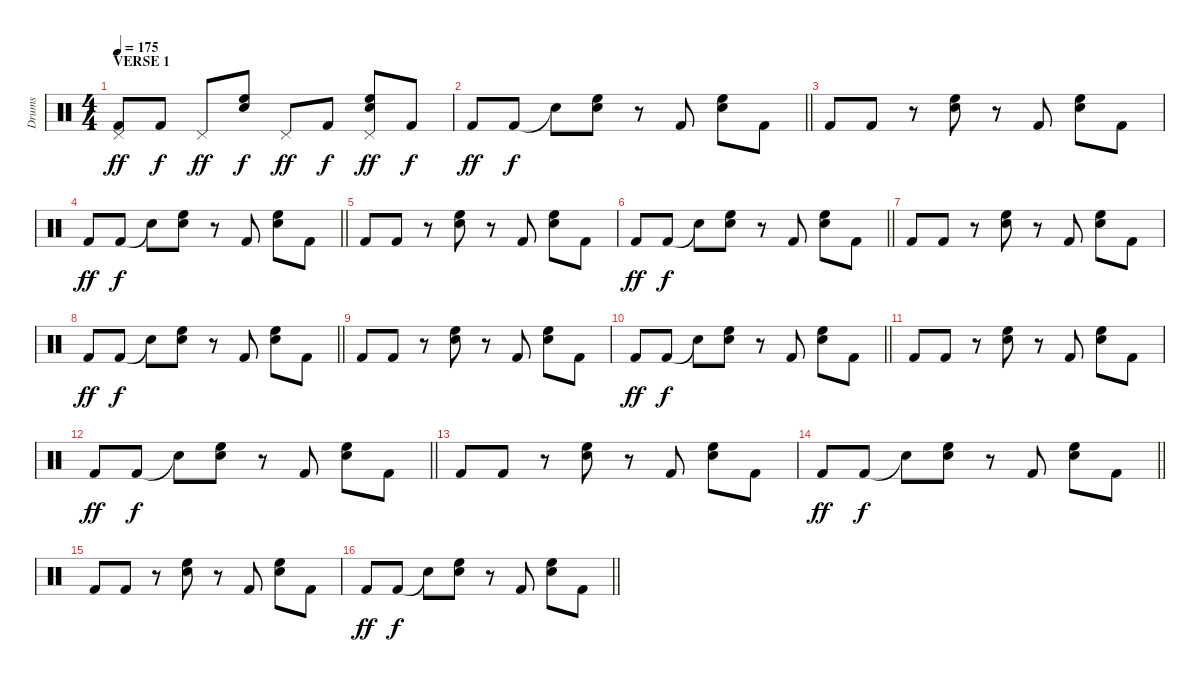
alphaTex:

\track ("Drums" "Drums") {instrument percussion}
\staff {score}
\articulation defaults
\ts (4 4)
\section ("" "VERSE 1")
\tempo 175
\clef neutral
\ks c
("Kick (hit) 2" "Pedal Hi-Hat (hit)").8{dy ff} "Kick (hit) 2".8{dy f} "Pedal Hi-Hat (hit)".8{dy ff} ("High Floor Tom (hit)" "Electric Snare (hit)").8{dy f} "Pedal Hi-Hat (hit)".8{dy ff} "Kick (hit) 2".8{dy f} ("High Floor Tom (hit)" "Electric Snare (hit)" "Pedal Hi-Hat (hit)").8{dy ff} "Kick (hit) 2".8{dy f} |
\barLineRight lightlight "Kick (hit) 2".8{dy ff} "Kick (hit) 2".8{dy f} "Snare (hit)"{t}.8
("High Floor Tom (hit)" "Electric Snare (hit)").8 r.8 "Kick (hit) 2".8 ("High Floor Tom (hit)" "Electric Snare (hit)").8 "Kick (hit) 2".8 |
"Kick (hit) 2".8 "Kick (hit) 2".8 r.8 ("High Floor Tom (hit)" "Electric Snare (hit)").8 r.8 "Kick (hit) 2".8 ("High Floor Tom (hit)" "Electric Snare (hit)").8 "Kick (hit) 2".8 |
\barLineRight lightlight "Kick (hit) 2".8{dy ff} "Kick (hit) 2".8{dy f} "Snare (hit)"{t}.8
("High Floor Tom (hit)" "Electric Snare (hit)").8 r.8 "Kick (hit) 2".8 ("High Floor Tom (hit)" "Electric Snare (hit)").8 "Kick (hit) 2".8 |
"Kick (hit) 2".8 "Kick (hit) 2".8 r.8 ("High Floor Tom (hit)" "Electric Snare (hit)").8 r.8 "Kick (hit) 2".8 ("High Floor Tom (hit)" "Electric Snare (hit)").8 "Kick (hit) 2".8 |
\barLineRight lightlight "Kick (hit) 2".8{dy ff} "Kick (hit) 2".8{dy f} "Snare (hit)"{t}.8
("High Floor Tom (hit)" "Electric Snare (hit)").8 r.8 "Kick (hit) 2".8 ("High Floor Tom (hit)" "Electric Snare (hit)").8 "Kick (hit) 2".8 |
"Kick (hit) 2".8 "Kick (hit) 2".8 r.8 ("High Floor Tom (hit)" "Electric Snare (hit)").8 r.8 "Kick (hit) 2".8 ("High Floor Tom (hit)" "Electric Snare (hit)").8 "Kick (hit) 2".8 |
\barLineRight lightlight "Kick (hit) 2".8{dy ff} "Kick (hit) 2".8{dy f} "Snare (hit)"{t}.8
("High Floor Tom (hit)" "Electric Snare (hit)").8 r.8 "Kick (hit) 2".8 ("High Floor Tom (hit)" "Electric Snare (hit)").8 "Kick (hit) 2".8 |
"Kick (hit) 2".8 "Kick (hit) 2".8 r.8 ("High Floor Tom (hit)" "Electric Snare (hit)").8 r.8 "Kick (hit) 2".8 ("High Floor Tom (hit)" "Electric Snare (hit)").8 "Kick (hit) 2".8 |
\barLineRight lightlight "Kick (hit) 2".8{dy ff} "Kick (hit) 2".8{dy f} "Snare (hit)"{t}.8
("High Floor Tom (hit)" "Electric Snare (hit)").8 r.8 "Kick (hit) 2".8 ("High Floor Tom (hit)" "Electric Snare (hit)").8 "Kick (hit) 2".8 |
"Kick (hit) 2".8 "Kick (hit) 2".8 r.8 ("High Floor Tom (hit)" "Electric Snare (hit)").8 r.8 "Kick (hit) 2".8 ("High Floor Tom (hit)" "Electric Snare (hit)").8 "Kick (hit) 2".8 |
\barLineRight lightlight "Kick (hit) 2".8{dy ff} "Kick (hit) 2".8{dy f} "Snare (hit)"{t}.8
("High Floor Tom (hit)" "Electric Snare (hit)").8 r.8 "Kick (hit) 2".8 ("High Floor Tom (hit)" "Electric Snare (hit)").8 "Kick (hit) 2".8 |
"Kick (hit) 2".8 "Kick (hit) 2".8 r.8 ("High Floor Tom (hit)" "Electric Snare (hit)").8 r.8 "Kick (hit) 2".8 ("High Floor Tom (hit)" "Electric Snare (hit)").8 "Kick (hit) 2".8 |
\barLineRight lightlight "Kick (hit) 2".8{dy ff} "Kick (hit) 2".8{dy f} "Snare (hit)"{t}.8
("High Floor Tom (hit)" "Electric Snare (hit)").8 r.8 "Kick (hit) 2".8 ("High Floor Tom (hit)" "Electric Snare (hit)").8 "Kick (hit) 2".8 |
"Kick (hit) 2".8 "Kick (hit) 2".8 r.8 ("High Floor Tom (hit)" "Electric Snare (hit)").8 r.8 "Kick (hit) 2".8 ("High Floor Tom (hit)" "Electric Snare (hit)").8 "Kick (hit) 2".8 |
\barLineRight lightlight "Kick (hit) 2".8{dy ff} "Kick (hit) 2".8{dy f} "Snare (hit)"{t}.8
("High Floor Tom (hit)" "Electric Snare (hit)").8 r.8 "Kick (hit) 2".8 ("High Floor Tom (hit)" "Electric Snare (hit)").8 "Kick (hit) 2".8
